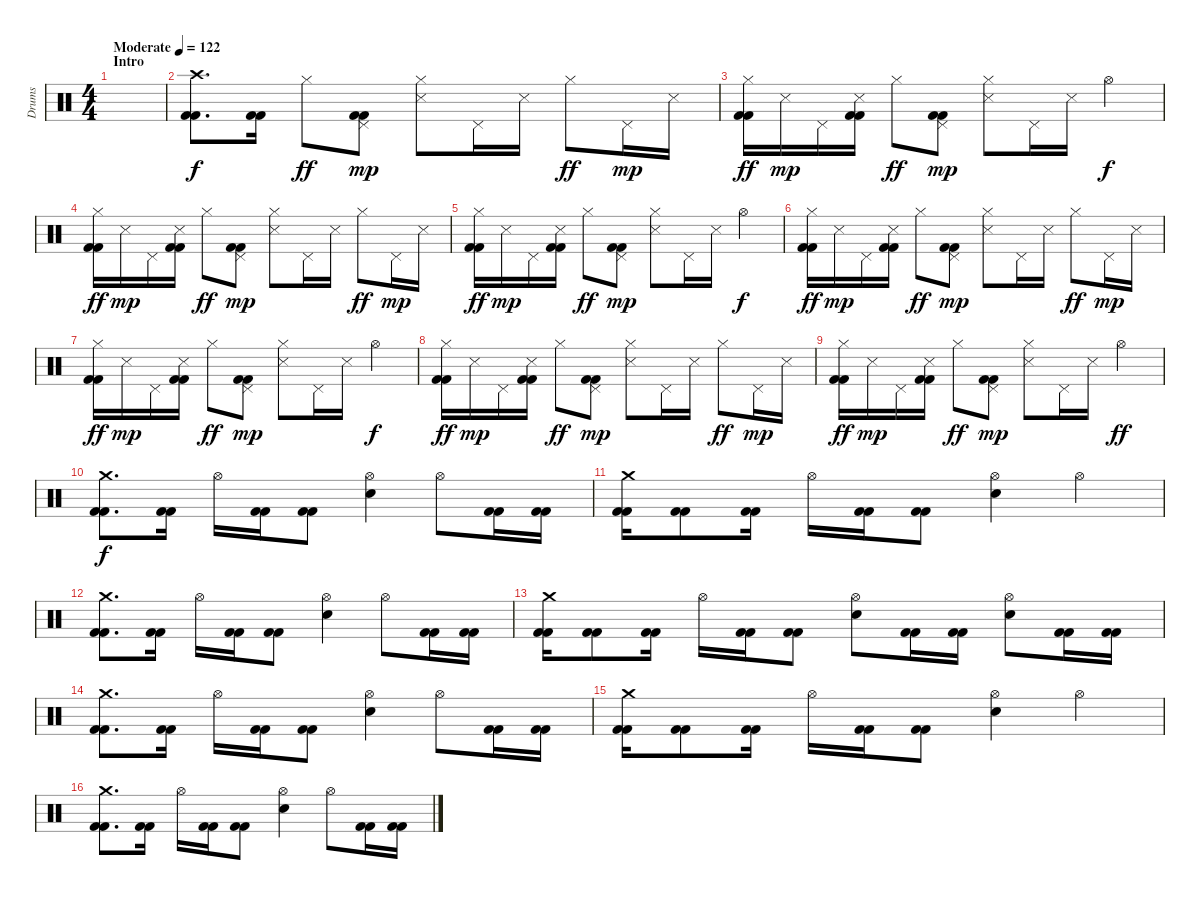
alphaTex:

\track ("Drums" "Drums") {instrument percussion}
\staff {score}
\articulation defaults
\ts (4 4)
\section ("" "Intro")
\tempo (122 "Moderate")
\clef neutral
\ks c
|
("Crash high (hit)" "Kick (hit) 2" "Kick (hit) 2").8{d} ("Kick (hit) 2" "Kick (hit) 2").16 "Hi-Hat (closed)".8{dy ff} ("Pedal Hi-Hat (hit)" "Kick (hit) 2" "Kick (hit) 2").8{dy mp} ("Hi-Hat (closed)" "Snare (side stick) 3").8 "Pedal Hi-Hat (hit)".16 "Snare (side stick) 3".16 "Hi-Hat (closed)".8{dy ff} "Pedal Hi-Hat (hit)".16{dy mp} "Snare (side stick) 3".16 |
("Hi-Hat (closed)" "Kick (hit) 2" "Kick (hit) 2").16{dy ff} "Snare (side stick) 3".16{dy mp} "Pedal Hi-Hat (hit)".16 ("Snare (side stick) 3" "Kick (hit) 2" "Kick (hit) 2").16 "Hi-Hat (closed)".8{dy ff} ("Pedal Hi-Hat (hit)" "Kick (hit) 2" "Kick (hit) 2").8{dy mp} ("Hi-Hat (closed)" "Snare (side stick) 3").8 "Pedal Hi-Hat (hit)".16 "Snare (side stick) 3".16 "Hi-Hat (open)".4{dy f} |
("Hi-Hat (closed)" "Kick (hit) 2" "Kick (hit) 2").16{dy ff} "Snare (side stick) 3".16{dy mp} "Pedal Hi-Hat (hit)".16 ("Snare (side stick) 3" "Kick (hit) 2" "Kick (hit) 2").16 "Hi-Hat (closed)".8{dy ff} ("Pedal Hi-Hat (hit)" "Kick (hit) 2" "Kick (hit) 2").8{dy mp} ("Hi-Hat (closed)" "Snare (side stick) 3").8 "Pedal Hi-Hat (hit)".16 "Snare (side stick) 3".16 "Hi-Hat (closed)".8{dy ff} "Pedal Hi-Hat (hit)".16{dy mp} "Snare (side stick) 3".16 |
("Hi-Hat (closed)" "Kick (hit) 2" "Kick (hit) 2").16{dy ff} "Snare (side stick) 3".16{dy mp} "Pedal Hi-Hat (hit)".16 ("Snare (side stick) 3" "Kick (hit) 2" "Kick (hit) 2").16 "Hi-Hat (closed)".8{dy ff} ("Pedal Hi-Hat (hit)" "Kick (hit) 2" "Kick (hit) 2").8{dy mp} ("Hi-Hat (closed)" "Snare (side stick) 3").8 "Pedal Hi-Hat (hit)".16 "Snare (side stick) 3".16 "Hi-Hat (open)".4{dy f} |
("Hi-Hat (closed)" "Kick (hit) 2" "Kick (hit) 2").16{dy ff} "Snare (side stick) 3".16{dy mp} "Pedal Hi-Hat (hit)".16 ("Snare (side stick) 3" "Kick (hit) 2" "Kick (hit) 2").16 "Hi-Hat (closed)".8{dy ff} ("Pedal Hi-Hat (hit)" "Kick (hit) 2" "Kick (hit) 2").8{dy mp} ("Hi-Hat (closed)" "Snare (side stick) 3").8 "Pedal Hi-Hat (hit)".16 "Snare (side stick) 3".16 "Hi-Hat (closed)".8{dy ff} "Pedal Hi-Hat (hit)".16{dy mp} "Snare (side stick) 3".16 |
("Hi-Hat (closed)" "Kick (hit) 2" "Kick (hit) 2").16{dy ff} "Snare (side stick) 3".16{dy mp} "Pedal Hi-Hat (hit)".16 ("Snare (side stick) 3" "Kick (hit) 2" "Kick (hit) 2").16 "Hi-Hat (closed)".8{dy ff} ("Pedal Hi-Hat (hit)" "Kick (hit) 2" "Kick (hit) 2").8{dy mp} ("Hi-Hat (closed)" "Snare (side stick) 3").8 "Pedal Hi-Hat (hit)".16 "Snare (side stick) 3".16 "Hi-Hat (open)".4{dy f} |
("Hi-Hat (closed)" "Kick (hit) 2" "Kick (hit) 2").16{dy ff} "Snare (side stick) 3".16{dy mp} "Pedal Hi-Hat (hit)".16 ("Snare (side stick) 3" "Kick (hit) 2" "Kick (hit) 2").16 "Hi-Hat (closed)".8{dy ff} ("Pedal Hi-Hat (hit)" "Kick (hit) 2" "Kick (hit) 2").8{dy mp} ("Hi-Hat (closed)" "Snare (side stick) 3").8 "Pedal Hi-Hat (hit)".16 "Snare (side stick) 3".16 "Hi-Hat (closed)".8{dy ff} "Pedal Hi-Hat (hit)".16{dy mp} "Snare (side stick) 3".16 |
("Hi-Hat (closed)" "Kick (hit) 2" "Kick (hit) 2").16{dy ff} "Snare (side stick) 3".16{dy mp} "Pedal Hi-Hat (hit)".16 ("Snare (side stick) 3" "Kick (hit) 2" "Kick (hit) 2").16 "Hi-Hat (closed)".8{dy ff} ("Pedal Hi-Hat (hit)" "Kick (hit) 2" "Kick (hit) 2").8{dy mp} ("Hi-Hat (closed)" "Snare (side stick) 3").8 "Pedal Hi-Hat (hit)".16 "Snare (side stick) 3".16 "Hi-Hat (open)".4{dy ff} |
("Crash medium (hit)" "Kick (hit) 2" "Kick (hit) 2").8{d dy f} ("Kick (hit) 2" "Kick (hit) 2").16 "Hi-Hat (open)".16 ("Kick (hit) 2" "Kick (hit) 2").16 ("Kick (hit) 2" "Kick (hit) 2").8 ("Hi-Hat (open)" "Electric Snare (hit)").4 "Hi-Hat (open)".8 ("Kick (hit) 2" "Kick (hit) 2").16 ("Kick (hit) 2" "Kick (hit) 2").16 |
("Crash medium (hit)" "Kick (hit) 2" "Kick (hit) 2").16 ("Kick (hit) 2" "Kick (hit) 2").8 ("Kick (hit) 2" "Kick (hit) 2").16 "Hi-Hat (open)".16 ("Kick (hit) 2" "Kick (hit) 2").16 ("Kick (hit) 2" "Kick (hit) 2").8 ("Hi-Hat (open)" "Electric Snare (hit)").4 "Hi-Hat (open)".4 |
("Crash medium (hit)" "Kick (hit) 2" "Kick (hit) 2").8{d} ("Kick (hit) 2" "Kick (hit) 2").16 "Hi-Hat (open)".16 ("Kick (hit) 2" "Kick (hit) 2").16 ("Kick (hit) 2" "Kick (hit) 2").8 ("Hi-Hat (open)" "Electric Snare (hit)").4 "Hi-Hat (open)".8 ("Kick (hit) 2" "Kick (hit) 2").16 ("Kick (hit) 2" "Kick (hit) 2").16 |
("Crash medium (hit)" "Kick (hit) 2" "Kick (hit) 2").16 ("Kick (hit) 2" "Kick (hit) 2").8 ("Kick (hit) 2" "Kick (hit) 2").16 "Hi-Hat (open)".16 ("Kick (hit) 2" "Kick (hit) 2").16 ("Kick (hit) 2" "Kick (hit) 2").8 ("Hi-Hat (open)" "Electric Snare (hit)").8 ("Kick (hit) 2" "Kick (hit) 2").16 ("Kick (hit) 2" "Kick (hit) 2").16 ("Hi-Hat (open)" "Electric Snare (hit)").8 ("Kick (hit) 2" "Kick (hit) 2").16 ("Kick (hit) 2" "Kick (hit) 2").16 |
("Crash medium (hit)" "Kick (hit) 2" "Kick (hit) 2").8{d} ("Kick (hit) 2" "Kick (hit) 2").16 "Hi-Hat (open)".16 ("Kick (hit) 2" "Kick (hit) 2").16 ("Kick (hit) 2" "Kick (hit) 2").8 ("Hi-Hat (open)" "Electric Snare (hit)").4 "Hi-Hat (open)".8 ("Kick (hit) 2" "Kick (hit) 2").16 ("Kick (hit) 2" "Kick (hit) 2").16 |
("Crash medium (hit)" "Kick (hit) 2" "Kick (hit) 2").16 ("Kick (hit) 2" "Kick (hit) 2").8 ("Kick (hit) 2" "Kick (hit) 2").16 "Hi-Hat (open)".16 ("Kick (hit) 2" "Kick (hit) 2").16 ("Kick (hit) 2" "Kick (hit) 2").8 ("Hi-Hat (open)" "Electric Snare (hit)").4 "Hi-Hat (open)".4 |
("Crash medium (hit)" "Kick (hit) 2" "Kick (hit) 2").8{d} ("Kick (hit) 2" "Kick (hit) 2").16 "Hi-Hat (open)".16 ("Kick (hit) 2" "Kick (hit) 2").16 ("Kick (hit) 2" "Kick (hit) 2").8 ("Hi-Hat (open)" "Electric Snare (hit)").4 "Hi-Hat (open)".8 ("Kick (hit) 2" "Kick (hit) 2").16 ("Kick (hit) 2" "Kick (hit) 2").16
